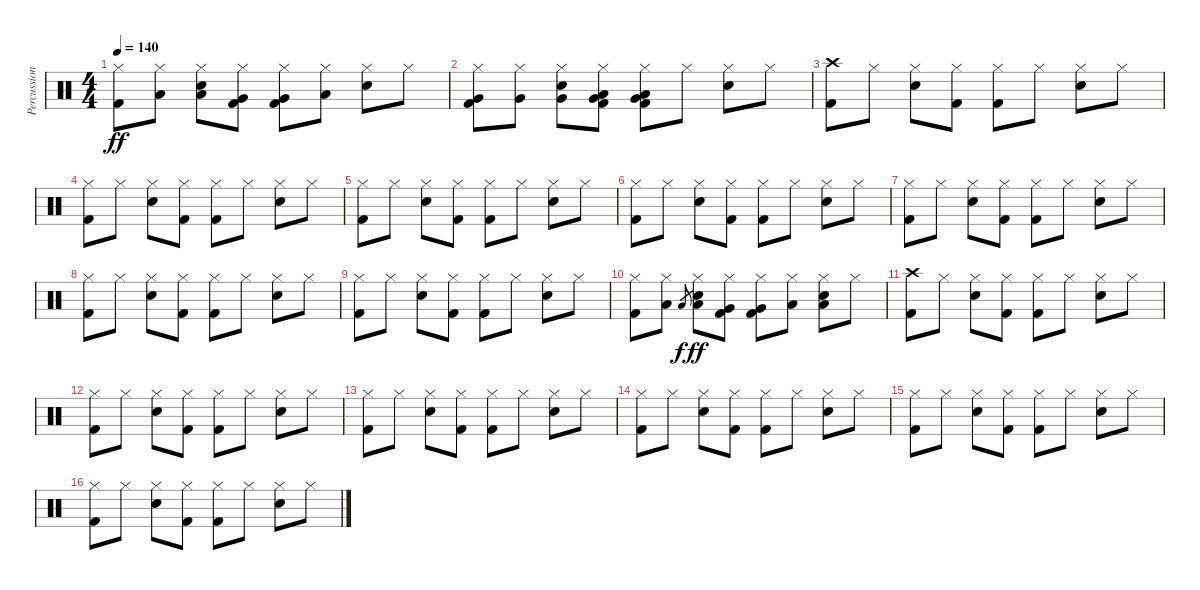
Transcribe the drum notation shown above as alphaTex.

\track ("Percussion" "Percussion") {instrument percussion}
\staff {score}
\articulation defaults
\ts (4 4)
\tempo 140
\clef neutral
\ks c
("Hi-Hat (closed)" "Kick (hit) 2").8{dy ff} ("Hi-Hat (closed)" "Low Tom (hit)").8 ("Hi-Hat (closed)" "Snare (hit) 2" "Low Tom (hit)").8 ("Hi-Hat (closed)" "Kick (hit) 2" "Very Low Tom (hit)").8 ("Hi-Hat (closed)" "Kick (hit) 2" "Very Low Tom (hit)").8 ("Hi-Hat (closed)" "Low Floor Tom (hit)").8 ("Hi-Hat (closed)" "Snare (hit) 2").8 "Hi-Hat (closed)".8 |
("Hi-Hat (closed)" "Kick (hit) 2" "Very Low Tom (hit)").8 ("Hi-Hat (closed)" "Very Low Tom (hit)").8 ("Hi-Hat (closed)" "Snare (hit) 2" "Very Low Tom (hit)").8 ("Hi-Hat (closed)" "Kick (hit) 2" "Low Floor Tom (hit)" "Very Low Tom (hit)").8 ("Hi-Hat (closed)" "Kick (hit) 2" "Low Floor Tom (hit)" "Very Low Tom (hit)").8 "Hi-Hat (closed)".8 ("Hi-Hat (closed)" "Snare (hit) 2").8 "Hi-Hat (closed)".8 |
("Crash high (hit)" "Kick (hit) 2").8 "Hi-Hat (closed)".8 ("Hi-Hat (closed)" "Snare (hit) 2").8 ("Hi-Hat (closed)" "Kick (hit) 2").8 ("Hi-Hat (closed)" "Kick (hit) 2").8 "Hi-Hat (closed)".8 ("Hi-Hat (closed)" "Snare (hit) 2").8 "Hi-Hat (closed)".8 |
("Hi-Hat (closed)" "Kick (hit) 2").8 "Hi-Hat (closed)".8 ("Hi-Hat (closed)" "Snare (hit) 2").8 ("Hi-Hat (closed)" "Kick (hit) 2").8 ("Hi-Hat (closed)" "Kick (hit) 2").8 "Hi-Hat (closed)".8 ("Hi-Hat (closed)" "Snare (hit) 2").8 "Hi-Hat (closed)".8 |
("Hi-Hat (closed)" "Kick (hit) 2").8 "Hi-Hat (closed)".8 ("Hi-Hat (closed)" "Snare (hit) 2").8 ("Hi-Hat (closed)" "Kick (hit) 2").8 ("Hi-Hat (closed)" "Kick (hit) 2").8 "Hi-Hat (closed)".8 ("Hi-Hat (closed)" "Snare (hit) 2").8 "Hi-Hat (closed)".8 |
("Hi-Hat (closed)" "Kick (hit) 2").8 "Hi-Hat (closed)".8 ("Hi-Hat (closed)" "Snare (hit) 2").8 ("Hi-Hat (closed)" "Kick (hit) 2").8 ("Hi-Hat (closed)" "Kick (hit) 2").8 "Hi-Hat (closed)".8 ("Hi-Hat (closed)" "Snare (hit) 2").8 "Hi-Hat (closed)".8 |
("Hi-Hat (closed)" "Kick (hit) 2").8 "Hi-Hat (closed)".8 ("Hi-Hat (closed)" "Snare (hit) 2").8 ("Hi-Hat (closed)" "Kick (hit) 2").8 ("Hi-Hat (closed)" "Kick (hit) 2").8 "Hi-Hat (closed)".8 ("Hi-Hat (closed)" "Snare (hit) 2").8 "Hi-Hat (closed)".8 |
("Hi-Hat (closed)" "Kick (hit) 2").8 "Hi-Hat (closed)".8 ("Hi-Hat (closed)" "Snare (hit) 2").8 ("Hi-Hat (closed)" "Kick (hit) 2").8 ("Hi-Hat (closed)" "Kick (hit) 2").8 "Hi-Hat (closed)".8 ("Hi-Hat (closed)" "Snare (hit) 2").8 "Hi-Hat (closed)".8 |
("Hi-Hat (closed)" "Kick (hit) 2").8 "Hi-Hat (closed)".8 ("Hi-Hat (closed)" "Snare (hit) 2").8 ("Hi-Hat (closed)" "Kick (hit) 2").8 ("Hi-Hat (closed)" "Kick (hit) 2").8 "Hi-Hat (closed)".8 ("Hi-Hat (closed)" "Snare (hit) 2").8 "Hi-Hat (closed)".8 |
("Hi-Hat (closed)" "Kick (hit) 2").8 ("Hi-Hat (closed)" "Low Tom (hit)").8 "Low Tom (hit)".8{gr dy f} ("Hi-Hat (closed)" "Snare (hit) 2" "Low Tom (hit)").8{dy ff} ("Hi-Hat (closed)" "Kick (hit) 2" "Very Low Tom (hit)").8 ("Hi-Hat (closed)" "Kick (hit) 2" "Very Low Tom (hit)").8 ("Hi-Hat (closed)" "Low Floor Tom (hit)").8 ("Hi-Hat (closed)" "Snare (hit) 2" "Low Floor Tom (hit)").8 "Hi-Hat (closed)".8 |
("Crash high (hit)" "Kick (hit) 2").8 "Hi-Hat (closed)".8 ("Hi-Hat (closed)" "Snare (hit) 2").8 ("Hi-Hat (closed)" "Kick (hit) 2").8 ("Hi-Hat (closed)" "Kick (hit) 2").8 "Hi-Hat (closed)".8 ("Hi-Hat (closed)" "Snare (hit) 2").8 "Hi-Hat (closed)".8 |
("Hi-Hat (closed)" "Kick (hit) 2").8 "Hi-Hat (closed)".8 ("Hi-Hat (closed)" "Snare (hit) 2").8 ("Hi-Hat (closed)" "Kick (hit) 2").8 ("Hi-Hat (closed)" "Kick (hit) 2").8 "Hi-Hat (closed)".8 ("Hi-Hat (closed)" "Snare (hit) 2").8 "Hi-Hat (closed)".8 |
("Hi-Hat (closed)" "Kick (hit) 2").8 "Hi-Hat (closed)".8 ("Hi-Hat (closed)" "Snare (hit) 2").8 ("Hi-Hat (closed)" "Kick (hit) 2").8 ("Hi-Hat (closed)" "Kick (hit) 2").8 "Hi-Hat (closed)".8 ("Hi-Hat (closed)" "Snare (hit) 2").8 "Hi-Hat (closed)".8 |
("Hi-Hat (closed)" "Kick (hit) 2").8 "Hi-Hat (closed)".8 ("Hi-Hat (closed)" "Snare (hit) 2").8 ("Hi-Hat (closed)" "Kick (hit) 2").8 ("Hi-Hat (closed)" "Kick (hit) 2").8 "Hi-Hat (closed)".8 ("Hi-Hat (closed)" "Snare (hit) 2").8 "Hi-Hat (closed)".8 |
("Hi-Hat (closed)" "Kick (hit) 2").8 "Hi-Hat (closed)".8 ("Hi-Hat (closed)" "Snare (hit) 2").8 ("Hi-Hat (closed)" "Kick (hit) 2").8 ("Hi-Hat (closed)" "Kick (hit) 2").8 "Hi-Hat (closed)".8 ("Hi-Hat (closed)" "Snare (hit) 2").8 "Hi-Hat (closed)".8 |
("Hi-Hat (closed)" "Kick (hit) 2").8 "Hi-Hat (closed)".8 ("Hi-Hat (closed)" "Snare (hit) 2").8 ("Hi-Hat (closed)" "Kick (hit) 2").8 ("Hi-Hat (closed)" "Kick (hit) 2").8 "Hi-Hat (closed)".8 ("Hi-Hat (closed)" "Snare (hit) 2").8 "Hi-Hat (closed)".8
